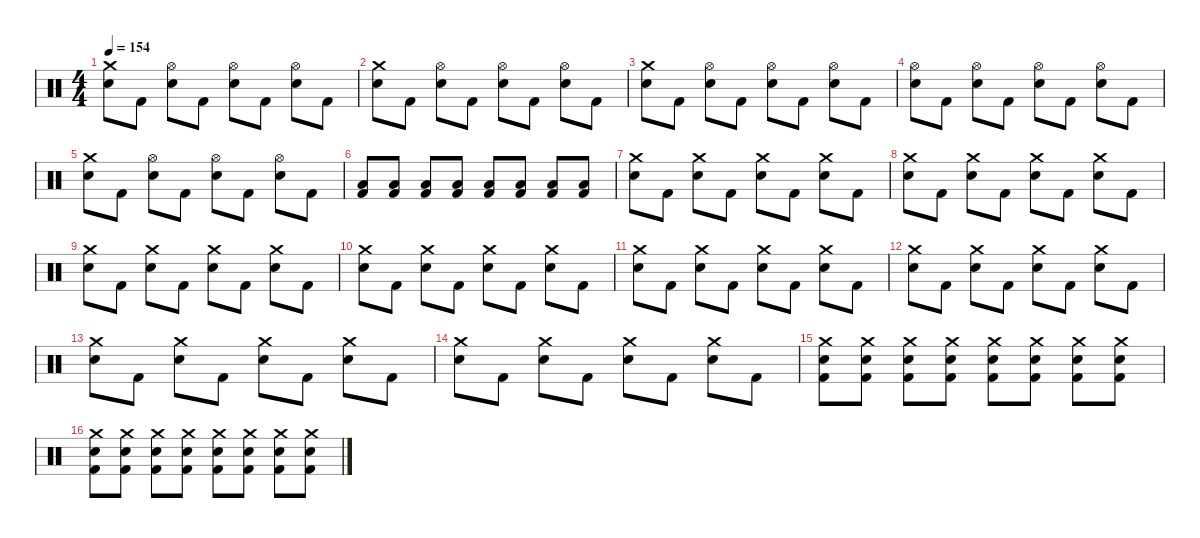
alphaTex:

\defaultSystemsLayout 4
\hideDynamics
\bracketExtendMode nobrackets
\singleTrackTrackNamePolicy hidden
\multiTrackTrackNamePolicy hidden
\firstSystemTrackNameMode fullname
\firstSystemTrackNameOrientation horizontal
\otherSystemsTrackNameOrientation horizontal
\track ("Percussie" "drm.") {instrument percussion}
\staff {score}
\articulation defaults
\ts (4 4)
\tempo 154
\clef neutral
\ks c
("Crash medium (hit)" "Snare (hit) 2").8{dy f beam Down} "Kick (hit) 2".8{beam Down} ("Hi-Hat (open)" "Snare (hit) 2").8{beam Down} "Kick (hit) 2".8{beam Down} ("Hi-Hat (open)" "Snare (hit) 2").8{beam Down} "Kick (hit) 2".8{beam Down} ("Hi-Hat (open)" "Snare (hit) 2").8{beam Down} "Kick (hit) 2".8{beam Down} |
("Crash medium (hit)" "Snare (hit) 2").8{beam Down} "Kick (hit) 2".8{beam Down} ("Hi-Hat (open)" "Snare (hit) 2").8{beam Down} "Kick (hit) 2".8{beam Down} ("Hi-Hat (open)" "Snare (hit) 2").8{beam Down} "Kick (hit) 2".8{beam Down} ("Hi-Hat (open)" "Snare (hit) 2").8{beam Down} "Kick (hit) 2".8{beam Down} |
("Crash medium (hit)" "Snare (hit) 2").8{beam Down} "Kick (hit) 2".8{beam Down} ("Hi-Hat (open)" "Snare (hit) 2").8{beam Down} "Kick (hit) 2".8{beam Down} ("Hi-Hat (open)" "Snare (hit) 2").8{beam Down} "Kick (hit) 2".8{beam Down} ("Hi-Hat (open)" "Snare (hit) 2").8{beam Down} "Kick (hit) 2".8{beam Down} |
("Hi-Hat (open)" "Snare (hit) 2").8{beam Down} "Kick (hit) 2".8{beam Down} ("Hi-Hat (open)" "Snare (hit) 2").8{beam Down} "Kick (hit) 2".8{beam Down} ("Hi-Hat (open)" "Snare (hit) 2").8{beam Down} "Kick (hit) 2".8{beam Down} ("Hi-Hat (open)" "Snare (hit) 2").8{beam Down} "Kick (hit) 2".8{beam Down} |
("Crash medium (hit)" "Snare (hit) 2").8{beam Down} "Kick (hit) 2".8{beam Down} ("Hi-Hat (open)" "Snare (hit) 2").8{beam Down} "Kick (hit) 2".8{beam Down} ("Hi-Hat (open)" "Snare (hit) 2").8{beam Down} "Kick (hit) 2".8{beam Down} ("Hi-Hat (open)" "Snare (hit) 2").8{beam Down} "Kick (hit) 2".8{beam Down} |
("Low Tom (hit)" "Kick (hit) 2").8{beam Up} ("Low Tom (hit)" "Kick (hit) 2").8{beam Up} ("Low Tom (hit)" "Kick (hit) 2").8{beam Up} ("Low Tom (hit)" "Kick (hit) 2").8{beam Up} ("Low Tom (hit)" "Kick (hit) 2").8{beam Up} ("Low Tom (hit)" "Kick (hit) 2").8{beam Up} ("Low Tom (hit)" "Kick (hit) 2").8{beam Up} ("Low Tom (hit)" "Kick (hit) 2").8{beam Up} |
("Crash medium (hit)" "Snare (hit) 2").8{beam Down} "Kick (hit) 2".8{beam Down} ("Crash medium (hit)" "Snare (hit) 2").8{beam Down} "Kick (hit) 2".8{beam Down} ("Crash medium (hit)" "Snare (hit) 2").8{beam Down} "Kick (hit) 2".8{beam Down} ("Crash medium (hit)" "Snare (hit) 2").8{beam Down} "Kick (hit) 2".8{beam Down} |
("Crash medium (hit)" "Snare (hit) 2").8{beam Down} "Kick (hit) 2".8{beam Down} ("Crash medium (hit)" "Snare (hit) 2").8{beam Down} "Kick (hit) 2".8{beam Down} ("Crash medium (hit)" "Snare (hit) 2").8{beam Down} "Kick (hit) 2".8{beam Down} ("Crash medium (hit)" "Snare (hit) 2").8{beam Down} "Kick (hit) 2".8{beam Down} |
("Crash medium (hit)" "Snare (hit) 2").8{beam Down} "Kick (hit) 2".8{beam Down} ("Crash medium (hit)" "Snare (hit) 2").8{beam Down} "Kick (hit) 2".8{beam Down} ("Crash medium (hit)" "Snare (hit) 2").8{beam Down} "Kick (hit) 2".8{beam Down} ("Crash medium (hit)" "Snare (hit) 2").8{beam Down} "Kick (hit) 2".8{beam Down} |
("Crash medium (hit)" "Snare (hit) 2").8{beam Down} "Kick (hit) 2".8{beam Down} ("Crash medium (hit)" "Snare (hit) 2").8{beam Down} "Kick (hit) 2".8{beam Down} ("Crash medium (hit)" "Snare (hit) 2").8{beam Down} "Kick (hit) 2".8{beam Down} ("Crash medium (hit)" "Snare (hit) 2").8{beam Down} "Kick (hit) 2".8{beam Down} |
("Crash medium (hit)" "Snare (hit) 2").8{beam Down} "Kick (hit) 2".8{beam Down} ("Crash medium (hit)" "Snare (hit) 2").8{beam Down} "Kick (hit) 2".8{beam Down} ("Crash medium (hit)" "Snare (hit) 2").8{beam Down} "Kick (hit) 2".8{beam Down} ("Crash medium (hit)" "Snare (hit) 2").8{beam Down} "Kick (hit) 2".8{beam Down} |
("Crash medium (hit)" "Snare (hit) 2").8{beam Down} "Kick (hit) 2".8{beam Down} ("Crash medium (hit)" "Snare (hit) 2").8{beam Down} "Kick (hit) 2".8{beam Down} ("Crash medium (hit)" "Snare (hit) 2").8{beam Down} "Kick (hit) 2".8{beam Down} ("Crash medium (hit)" "Snare (hit) 2").8{beam Down} "Kick (hit) 2".8{beam Down} |
("Crash medium (hit)" "Snare (hit) 2").8{beam Down} "Kick (hit) 2".8{beam Down} ("Crash medium (hit)" "Snare (hit) 2").8{beam Down} "Kick (hit) 2".8{beam Down} ("Crash medium (hit)" "Snare (hit) 2").8{beam Down} "Kick (hit) 2".8{beam Down} ("Crash medium (hit)" "Snare (hit) 2").8{beam Down} "Kick (hit) 2".8{beam Down} |
("Crash medium (hit)" "Snare (hit) 2").8{beam Down} "Kick (hit) 2".8{beam Down} ("Crash medium (hit)" "Snare (hit) 2").8{beam Down} "Kick (hit) 2".8{beam Down} ("Crash medium (hit)" "Snare (hit) 2").8{beam Down} "Kick (hit) 2".8{beam Down} ("Crash medium (hit)" "Snare (hit) 2").8{beam Down} "Kick (hit) 2".8{beam Down} |
("Crash medium (hit)" "Snare (hit) 2" "Kick (hit) 2").8{beam Down} ("Crash medium (hit)" "Snare (hit) 2" "Kick (hit) 2").8{beam Down} ("Crash medium (hit)" "Snare (hit) 2" "Kick (hit) 2").8{beam Down} ("Crash medium (hit)" "Snare (hit) 2" "Kick (hit) 2").8{beam Down} ("Crash medium (hit)" "Snare (hit) 2" "Kick (hit) 2").8{beam Down} ("Crash medium (hit)" "Snare (hit) 2" "Kick (hit) 2").8{beam Down} ("Crash medium (hit)" "Snare (hit) 2" "Kick (hit) 2").8{beam Down} ("Crash medium (hit)" "Snare (hit) 2" "Kick (hit) 2").8{beam Down} |
("Crash medium (hit)" "Snare (hit) 2" "Kick (hit) 2").8{beam Down} ("Crash medium (hit)" "Snare (hit) 2" "Kick (hit) 2").8{beam Down} ("Crash medium (hit)" "Snare (hit) 2" "Kick (hit) 2").8{beam Down} ("Crash medium (hit)" "Snare (hit) 2" "Kick (hit) 2").8{beam Down} ("Crash medium (hit)" "Snare (hit) 2" "Kick (hit) 2").8{beam Down} ("Crash medium (hit)" "Snare (hit) 2" "Kick (hit) 2").8{beam Down} ("Crash medium (hit)" "Snare (hit) 2" "Kick (hit) 2").8{beam Down} ("Crash medium (hit)" "Snare (hit) 2" "Kick (hit) 2").8{beam Down}
